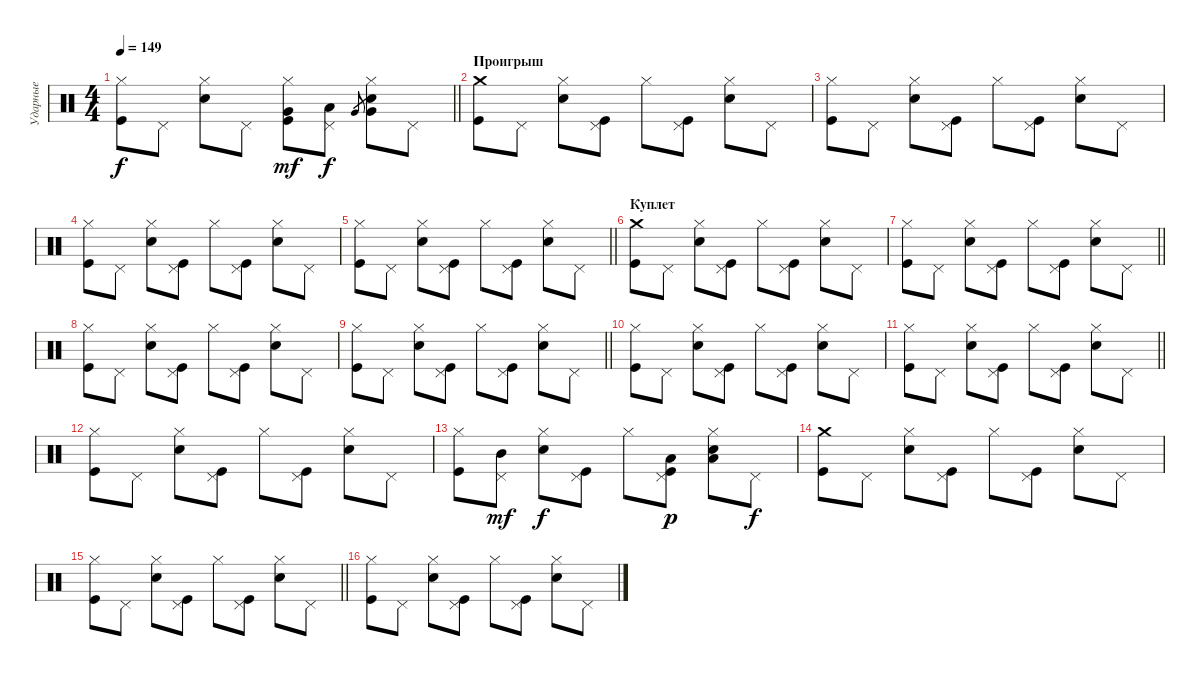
\track ("Ударные" "Ударные") {instrument percussion}
\staff {score}
\articulation defaults
\ts (4 4)
\tempo 149
\clef neutral
\barLineRight lightlight
\ks c
("Hi-Hat (closed)" "Kick (hit)").8{dy f} "Pedal Hi-Hat (hit)".8 ("Hi-Hat (closed)" "Snare (hit) 2").8 "Pedal Hi-Hat (hit)".8 ("Hi-Hat (closed)" "Kick (hit)" "Very Low Tom (hit)").8{dy mf} ("Pedal Hi-Hat (hit)" "Low Tom (hit)").8{dy f} "Very Low Tom (hit)".8{gr} ("Hi-Hat (closed)" "Snare (hit) 2" "Very Low Tom (hit)").8 "Pedal Hi-Hat (hit)".8 |
\section ("" "Проигрыш")
("Crash medium (hit)" "Kick (hit)").8 "Pedal Hi-Hat (hit)".8 ("Hi-Hat (closed)" "Snare (hit) 2").8 ("Pedal Hi-Hat (hit)" "Kick (hit)").8 "Hi-Hat (closed)".8 ("Pedal Hi-Hat (hit)" "Kick (hit)").8 ("Hi-Hat (closed)" "Snare (hit) 2").8 "Pedal Hi-Hat (hit)".8 |
("Hi-Hat (closed)" "Kick (hit)").8 "Pedal Hi-Hat (hit)".8 ("Hi-Hat (closed)" "Snare (hit) 2").8 ("Pedal Hi-Hat (hit)" "Kick (hit)").8 "Hi-Hat (closed)".8 ("Pedal Hi-Hat (hit)" "Kick (hit)").8 ("Hi-Hat (closed)" "Snare (hit) 2").8 "Pedal Hi-Hat (hit)".8 |
("Hi-Hat (closed)" "Kick (hit)").8 "Pedal Hi-Hat (hit)".8 ("Hi-Hat (closed)" "Snare (hit) 2").8 ("Pedal Hi-Hat (hit)" "Kick (hit)").8 "Hi-Hat (closed)".8 ("Pedal Hi-Hat (hit)" "Kick (hit)").8 ("Hi-Hat (closed)" "Snare (hit) 2").8 "Pedal Hi-Hat (hit)".8 |
\barLineRight lightlight
("Hi-Hat (closed)" "Kick (hit)").8 "Pedal Hi-Hat (hit)".8 ("Hi-Hat (closed)" "Snare (hit) 2").8 ("Pedal Hi-Hat (hit)" "Kick (hit)").8 "Hi-Hat (closed)".8 ("Pedal Hi-Hat (hit)" "Kick (hit)").8 ("Hi-Hat (closed)" "Snare (hit) 2").8 "Pedal Hi-Hat (hit)".8 |
\section ("" "Куплет")
("Crash medium (hit)" "Kick (hit)").8 "Pedal Hi-Hat (hit)".8 ("Hi-Hat (closed)" "Snare (hit) 2").8 ("Pedal Hi-Hat (hit)" "Kick (hit)").8 "Hi-Hat (closed)".8 ("Pedal Hi-Hat (hit)" "Kick (hit)").8 ("Hi-Hat (closed)" "Snare (hit) 2").8 "Pedal Hi-Hat (hit)".8 |
\barLineRight lightlight
("Hi-Hat (closed)" "Kick (hit)").8 "Pedal Hi-Hat (hit)".8 ("Hi-Hat (closed)" "Snare (hit) 2").8 ("Pedal Hi-Hat (hit)" "Kick (hit)").8 "Hi-Hat (closed)".8 ("Pedal Hi-Hat (hit)" "Kick (hit)").8 ("Hi-Hat (closed)" "Snare (hit) 2").8 "Pedal Hi-Hat (hit)".8 |
("Hi-Hat (closed)" "Kick (hit)").8 "Pedal Hi-Hat (hit)".8 ("Hi-Hat (closed)" "Snare (hit) 2").8 ("Pedal Hi-Hat (hit)" "Kick (hit)").8 "Hi-Hat (closed)".8 ("Pedal Hi-Hat (hit)" "Kick (hit)").8 ("Hi-Hat (closed)" "Snare (hit) 2").8 "Pedal Hi-Hat (hit)".8 |
\barLineRight lightlight
("Hi-Hat (closed)" "Kick (hit)").8 "Pedal Hi-Hat (hit)".8 ("Hi-Hat (closed)" "Snare (hit) 2").8 ("Pedal Hi-Hat (hit)" "Kick (hit)").8 "Hi-Hat (closed)".8 ("Pedal Hi-Hat (hit)" "Kick (hit)").8 ("Hi-Hat (closed)" "Snare (hit) 2").8 "Pedal Hi-Hat (hit)".8 |
("Hi-Hat (closed)" "Kick (hit)").8 "Pedal Hi-Hat (hit)".8 ("Hi-Hat (closed)" "Snare (hit) 2").8 ("Pedal Hi-Hat (hit)" "Kick (hit)").8 "Hi-Hat (closed)".8 ("Pedal Hi-Hat (hit)" "Kick (hit)").8 ("Hi-Hat (closed)" "Snare (hit) 2").8 "Pedal Hi-Hat (hit)".8 |
\barLineRight lightlight
("Hi-Hat (closed)" "Kick (hit)").8 "Pedal Hi-Hat (hit)".8 ("Hi-Hat (closed)" "Snare (hit) 2").8 ("Pedal Hi-Hat (hit)" "Kick (hit)").8 "Hi-Hat (closed)".8 ("Pedal Hi-Hat (hit)" "Kick (hit)").8 ("Hi-Hat (closed)" "Snare (hit) 2").8 "Pedal Hi-Hat (hit)".8 |
("Hi-Hat (closed)" "Kick (hit)").8 "Pedal Hi-Hat (hit)".8 ("Hi-Hat (closed)" "Snare (hit) 2").8 ("Pedal Hi-Hat (hit)" "Kick (hit)").8 "Hi-Hat (closed)".8 ("Pedal Hi-Hat (hit)" "Kick (hit)").8 ("Hi-Hat (closed)" "Snare (hit) 2").8 "Pedal Hi-Hat (hit)".8 |
("Hi-Hat (closed)" "Kick (hit)").8 ("Pedal Hi-Hat (hit)" "Mid Tom (hit)").8{dy mf} ("Hi-Hat (closed)" "Snare (hit) 2").8{dy f} ("Pedal Hi-Hat (hit)" "Kick (hit)").8 "Hi-Hat (closed)".8 ("Pedal Hi-Hat (hit)" "Kick (hit)" "Low Floor Tom (hit)").8{dy p} ("Hi-Hat (closed)" "Snare (hit) 2" "Low Floor Tom (hit)").8 "Pedal Hi-Hat (hit)".8{dy f} |
("Crash medium (hit)" "Kick (hit)").8 "Pedal Hi-Hat (hit)".8 ("Hi-Hat (closed)" "Snare (hit) 2").8 ("Pedal Hi-Hat (hit)" "Kick (hit)").8 "Hi-Hat (closed)".8 ("Pedal Hi-Hat (hit)" "Kick (hit)").8 ("Hi-Hat (closed)" "Snare (hit) 2").8 "Pedal Hi-Hat (hit)".8 |
\barLineRight lightlight
("Hi-Hat (closed)" "Kick (hit)").8 "Pedal Hi-Hat (hit)".8 ("Hi-Hat (closed)" "Snare (hit) 2").8 ("Pedal Hi-Hat (hit)" "Kick (hit)").8 "Hi-Hat (closed)".8 ("Pedal Hi-Hat (hit)" "Kick (hit)").8 ("Hi-Hat (closed)" "Snare (hit) 2").8 "Pedal Hi-Hat (hit)".8 |
("Hi-Hat (closed)" "Kick (hit)").8 "Pedal Hi-Hat (hit)".8 ("Hi-Hat (closed)" "Snare (hit) 2").8 ("Pedal Hi-Hat (hit)" "Kick (hit)").8 "Hi-Hat (closed)".8 ("Pedal Hi-Hat (hit)" "Kick (hit)").8 ("Hi-Hat (closed)" "Snare (hit) 2").8 "Pedal Hi-Hat (hit)".8
